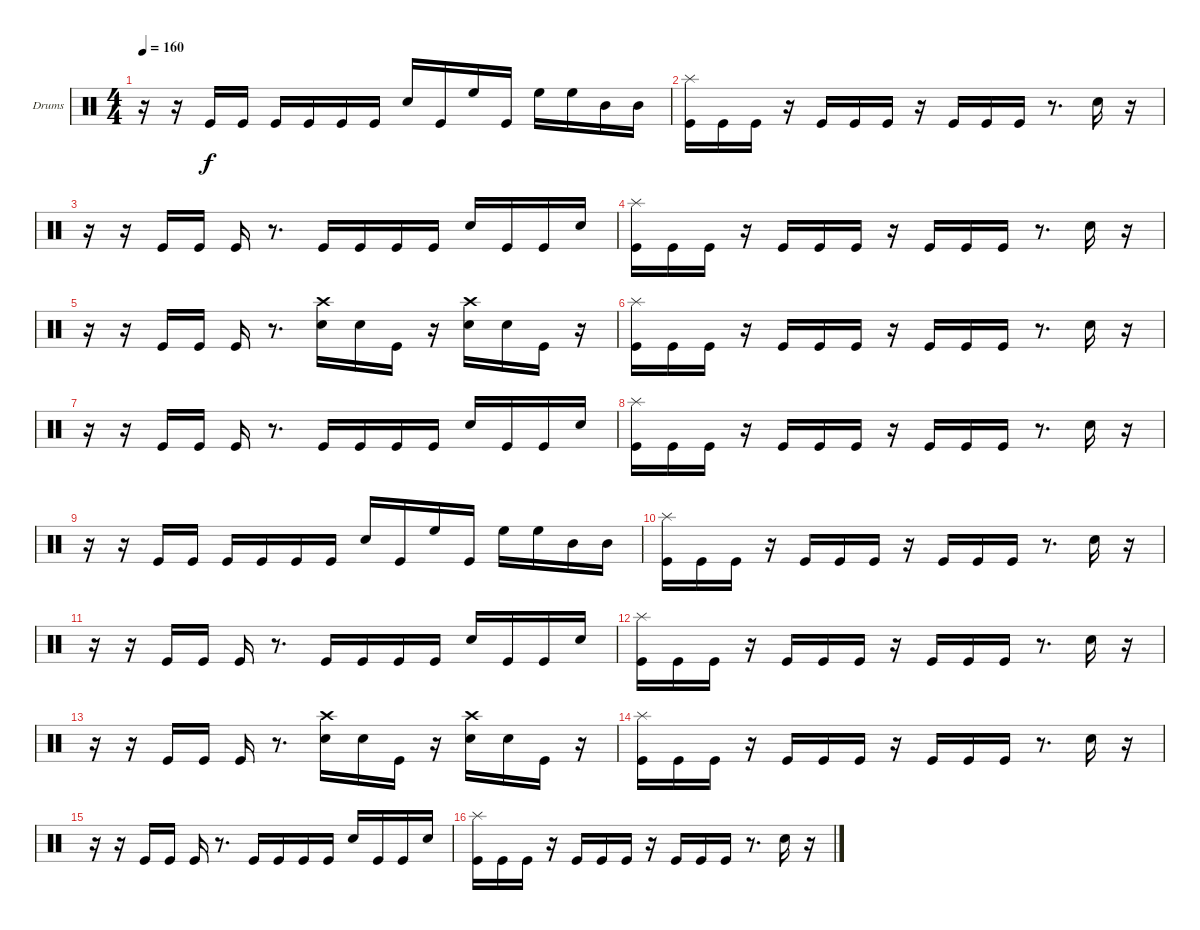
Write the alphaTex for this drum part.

\bracketExtendMode groupsimilarinstruments
\firstSystemTrackNameOrientation horizontal
\otherSystemsTrackNameOrientation horizontal
\track ("Drumkit" "Drums") {instrument percussion}
\staff {score}
\articulation defaults
\ts (4 4)
\tempo 160
\clef neutral
\ks c
r.16{dy f} r.16 "Kick (hit)".16 "Kick (hit)".16 "Kick (hit)".16 "Kick (hit)".16 "Kick (hit)".16 "Kick (hit)".16 "Snare (hit) 2".16 "Kick (hit)".16 "High Floor Tom (hit)".16 "Kick (hit)".16 "High Floor Tom (hit)".16 "High Floor Tom (hit)".16 "Mid Tom (hit)".16 "Mid Tom (hit)".16 |
("Splash (hit)" "Kick (hit)").16 "Kick (hit)".16 "Kick (hit)".16 r.16 "Kick (hit)".16 "Kick (hit)".16 "Kick (hit)".16 r.16 "Kick (hit)".16 "Kick (hit)".16 "Kick (hit)".16 r.8{d} "Snare (hit) 2".16 r.16 |
r.16 r.16 "Kick (hit)".16 "Kick (hit)".16 "Kick (hit)".16 r.8{d} "Kick (hit)".16 "Kick (hit)".16 "Kick (hit)".16 "Kick (hit)".16 "Snare (hit) 2".16 "Kick (hit)".16 "Kick (hit)".16 "Snare (hit) 2".16 |
("Splash (hit)" "Kick (hit)").16 "Kick (hit)".16 "Kick (hit)".16 r.16 "Kick (hit)".16 "Kick (hit)".16 "Kick (hit)".16 r.16 "Kick (hit)".16 "Kick (hit)".16 "Kick (hit)".16 r.8{d} "Snare (hit) 2".16 r.16 |
r.16 r.16 "Kick (hit)".16 "Kick (hit)".16 "Kick (hit)".16 r.8{d} ("Crash high (hit)" "Snare (hit) 2").16 "Snare (hit) 2".16 "Kick (hit)".16 r.16 ("Crash high (hit)" "Snare (hit) 2").16 "Snare (hit) 2".16 "Kick (hit)".16 r.16 |
("Splash (hit)" "Kick (hit)").16 "Kick (hit)".16 "Kick (hit)".16 r.16 "Kick (hit)".16 "Kick (hit)".16 "Kick (hit)".16 r.16 "Kick (hit)".16 "Kick (hit)".16 "Kick (hit)".16 r.8{d} "Snare (hit) 2".16 r.16 |
r.16 r.16 "Kick (hit)".16 "Kick (hit)".16 "Kick (hit)".16 r.8{d} "Kick (hit)".16 "Kick (hit)".16 "Kick (hit)".16 "Kick (hit)".16 "Snare (hit) 2".16 "Kick (hit)".16 "Kick (hit)".16 "Snare (hit) 2".16 |
("Kick (hit)" "Splash (hit)").16 "Kick (hit)".16 "Kick (hit)".16 r.16 "Kick (hit)".16 "Kick (hit)".16 "Kick (hit)".16 r.16 "Kick (hit)".16 "Kick (hit)".16 "Kick (hit)".16 r.8{d} "Snare (hit) 2".16 r.16 |
r.16 r.16 "Kick (hit)".16 "Kick (hit)".16 "Kick (hit)".16 "Kick (hit)".16 "Kick (hit)".16 "Kick (hit)".16 "Snare (hit) 2".16 "Kick (hit)".16 "High Floor Tom (hit)".16 "Kick (hit)".16 "High Floor Tom (hit)".16 "High Floor Tom (hit)".16 "Mid Tom (hit)".16 "Mid Tom (hit)".16 |
("Splash (hit)" "Kick (hit)").16 "Kick (hit)".16 "Kick (hit)".16 r.16 "Kick (hit)".16 "Kick (hit)".16 "Kick (hit)".16 r.16 "Kick (hit)".16 "Kick (hit)".16 "Kick (hit)".16 r.8{d} "Snare (hit) 2".16 r.16 |
r.16 r.16 "Kick (hit)".16 "Kick (hit)".16 "Kick (hit)".16 r.8{d} "Kick (hit)".16 "Kick (hit)".16 "Kick (hit)".16 "Kick (hit)".16 "Snare (hit) 2".16 "Kick (hit)".16 "Kick (hit)".16 "Snare (hit) 2".16 |
("Splash (hit)" "Kick (hit)").16 "Kick (hit)".16 "Kick (hit)".16 r.16 "Kick (hit)".16 "Kick (hit)".16 "Kick (hit)".16 r.16 "Kick (hit)".16 "Kick (hit)".16 "Kick (hit)".16 r.8{d} "Snare (hit) 2".16 r.16 |
r.16 r.16 "Kick (hit)".16 "Kick (hit)".16 "Kick (hit)".16 r.8{d} ("Crash high (hit)" "Snare (hit) 2").16 "Snare (hit) 2".16 "Kick (hit)".16 r.16 ("Crash high (hit)" "Snare (hit) 2").16 "Snare (hit) 2".16 "Kick (hit)".16 r.16 |
("Splash (hit)" "Kick (hit)").16 "Kick (hit)".16 "Kick (hit)".16 r.16 "Kick (hit)".16 "Kick (hit)".16 "Kick (hit)".16 r.16 "Kick (hit)".16 "Kick (hit)".16 "Kick (hit)".16 r.8{d} "Snare (hit) 2".16 r.16 |
r.16 r.16 "Kick (hit)".16 "Kick (hit)".16 "Kick (hit)".16 r.8{d} "Kick (hit)".16 "Kick (hit)".16 "Kick (hit)".16 "Kick (hit)".16 "Snare (hit) 2".16 "Kick (hit)".16 "Kick (hit)".16 "Snare (hit) 2".16 |
("Kick (hit)" "Splash (hit)").16 "Kick (hit)".16 "Kick (hit)".16 r.16 "Kick (hit)".16 "Kick (hit)".16 "Kick (hit)".16 r.16 "Kick (hit)".16 "Kick (hit)".16 "Kick (hit)".16 r.8{d} "Snare (hit) 2".16 r.16
